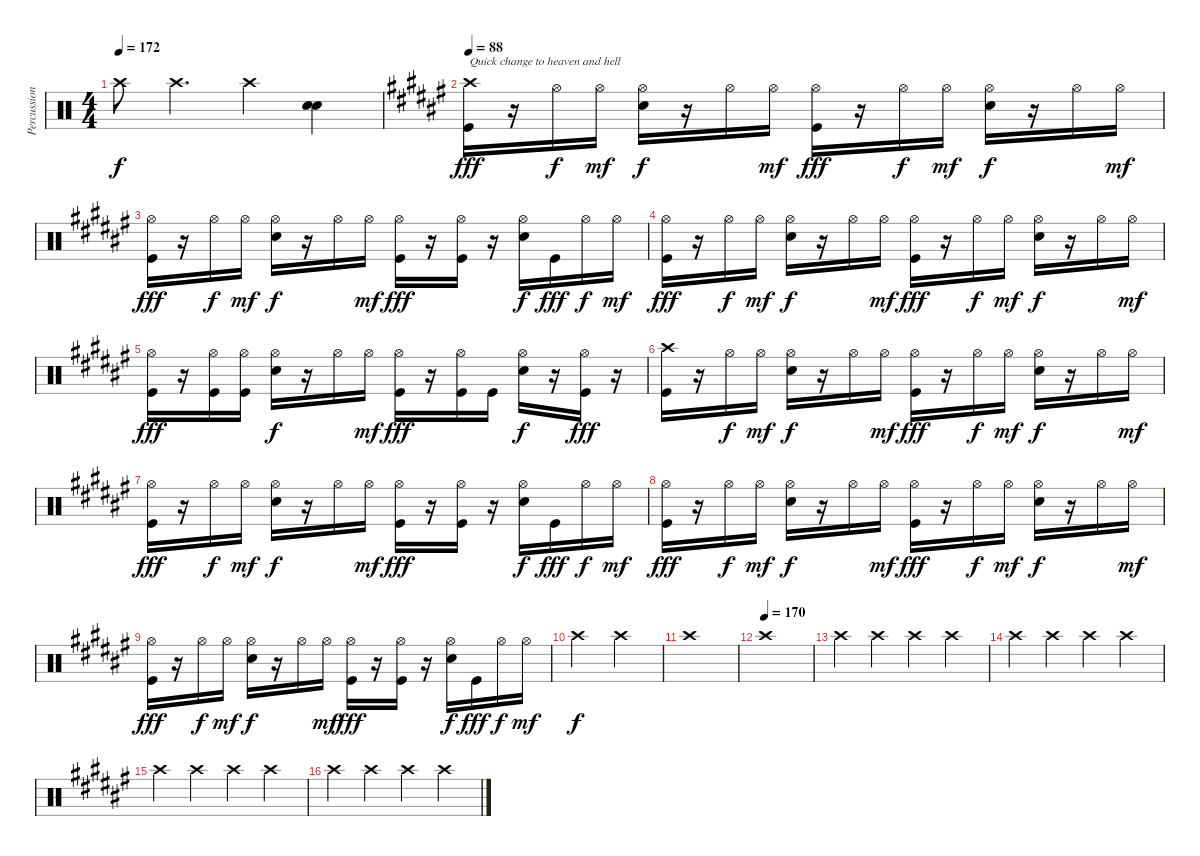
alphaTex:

\track ("Percussion" "Percussion") {instrument percussion}
\staff {score}
\articulation defaults
\ts (4 4)
\tempo 172
\clef neutral
\ks c "Crash high (hit)".8{dy f} "Crash high (hit)".4{d} "Crash high (hit)".4
("Snare (hit) 2" "Snare (hit) 2").4 |
\tempo 88
\ks f#
("Crash high (hit)" "Kick (hit)").16{txt "Quick change to heaven and hell" dy fff} r.16 "Hi-Hat (open)".16{dy f} "Hi-Hat (open)".16{dy mf} ("Hi-Hat (open)" "Snare (hit) 2").16{dy f} r.16 "Hi-Hat (open)".16 "Hi-Hat (open)".16{dy mf} ("Hi-Hat (open)" "Kick (hit)").16{dy fff} r.16 "Hi-Hat (open)".16{dy f} "Hi-Hat (open)".16{dy mf} ("Hi-Hat (open)" "Snare (hit) 2").16{dy f} r.16 "Hi-Hat (open)".16 "Hi-Hat (open)".16{dy mf} |
("Hi-Hat (open)" "Kick (hit)").16{dy fff} r.16 "Hi-Hat (open)".16{dy f} "Hi-Hat (open)".16{dy mf} ("Hi-Hat (open)" "Snare (hit) 2").16{dy f} r.16 "Hi-Hat (open)".16 "Hi-Hat (open)".16{dy mf} ("Hi-Hat (open)" "Kick (hit)").16{dy fff} r.16 ("Hi-Hat (open)" "Kick (hit)").16 r.16 ("Hi-Hat (open)" "Snare (hit) 2").16{dy f} "Kick (hit)".16{dy fff} "Hi-Hat (open)".16{dy f} "Hi-Hat (open)".16{dy mf} |
("Hi-Hat (open)" "Kick (hit)").16{dy fff} r.16 "Hi-Hat (open)".16{dy f} "Hi-Hat (open)".16{dy mf} ("Hi-Hat (open)" "Snare (hit) 2").16{dy f} r.16 "Hi-Hat (open)".16 "Hi-Hat (open)".16{dy mf} ("Hi-Hat (open)" "Kick (hit)").16{dy fff} r.16 "Hi-Hat (open)".16{dy f} "Hi-Hat (open)".16{dy mf} ("Hi-Hat (open)" "Snare (hit) 2").16{dy f} r.16 "Hi-Hat (open)".16 "Hi-Hat (open)".16{dy mf} |
("Hi-Hat (open)" "Kick (hit)").16{dy fff} r.16 ("Hi-Hat (open)" "Kick (hit)").16 ("Hi-Hat (open)" "Kick (hit)").16 ("Hi-Hat (open)" "Snare (hit) 2").16{dy f} r.16 "Hi-Hat (open)".16 "Hi-Hat (open)".16{dy mf} ("Hi-Hat (open)" "Kick (hit)").16{dy fff} r.16 ("Hi-Hat (open)" "Kick (hit)").16 "Kick (hit)".16 ("Hi-Hat (open)" "Snare (hit) 2").16{dy f} r.16 ("Hi-Hat (open)" "Kick (hit)").16{dy fff} r.16 |
("Crash high (hit)" "Kick (hit)").16 r.16 "Hi-Hat (open)".16{dy f} "Hi-Hat (open)".16{dy mf} ("Hi-Hat (open)" "Snare (hit) 2").16{dy f} r.16 "Hi-Hat (open)".16 "Hi-Hat (open)".16{dy mf} ("Hi-Hat (open)" "Kick (hit)").16{dy fff} r.16 "Hi-Hat (open)".16{dy f} "Hi-Hat (open)".16{dy mf} ("Hi-Hat (open)" "Snare (hit) 2").16{dy f} r.16 "Hi-Hat (open)".16 "Hi-Hat (open)".16{dy mf} |
("Hi-Hat (open)" "Kick (hit)").16{dy fff} r.16 "Hi-Hat (open)".16{dy f} "Hi-Hat (open)".16{dy mf} ("Hi-Hat (open)" "Snare (hit) 2").16{dy f} r.16 "Hi-Hat (open)".16 "Hi-Hat (open)".16{dy mf} ("Hi-Hat (open)" "Kick (hit)").16{dy fff} r.16 ("Hi-Hat (open)" "Kick (hit)").16 r.16 ("Hi-Hat (open)" "Snare (hit) 2").16{dy f} "Kick (hit)".16{dy fff} "Hi-Hat (open)".16{dy f} "Hi-Hat (open)".16{dy mf} |
("Hi-Hat (open)" "Kick (hit)").16{dy fff} r.16 "Hi-Hat (open)".16{dy f} "Hi-Hat (open)".16{dy mf} ("Hi-Hat (open)" "Snare (hit) 2").16{dy f} r.16 "Hi-Hat (open)".16 "Hi-Hat (open)".16{dy mf} ("Hi-Hat (open)" "Kick (hit)").16{dy fff} r.16 "Hi-Hat (open)".16{dy f} "Hi-Hat (open)".16{dy mf} ("Hi-Hat (open)" "Snare (hit) 2").16{dy f} r.16 "Hi-Hat (open)".16 "Hi-Hat (open)".16{dy mf} |
("Hi-Hat (open)" "Kick (hit)").16{dy fff} r.16 "Hi-Hat (open)".16{dy f} "Hi-Hat (open)".16{dy mf} ("Hi-Hat (open)" "Snare (hit) 2").16{dy f} r.16 "Hi-Hat (open)".16 "Hi-Hat (open)".16{dy mf} ("Hi-Hat (open)" "Kick (hit)").16{dy fff} r.16 ("Hi-Hat (open)" "Kick (hit)").16 r.16 ("Hi-Hat (open)" "Snare (hit) 2").16{dy f} "Kick (hit)".16{dy fff} "Hi-Hat (open)".16{dy f} "Hi-Hat (open)".16{dy mf} |
"Crash high (hit)".2{dy f} "Crash high (hit)".2 |
"Crash high (hit)".1 |
\tempo (170)
"Crash high (hit)".1 |
"Crash high (hit)".4 "Crash high (hit)".4 "Crash high (hit)".4 "Crash high (hit)".4 |
"Crash high (hit)".4 "Crash high (hit)".4 "Crash high (hit)".4 "Crash high (hit)".4 |
"Crash high (hit)".4 "Crash high (hit)".4 "Crash high (hit)".4 "Crash high (hit)".4 |
"Crash high (hit)".4 "Crash high (hit)".4 "Crash high (hit)".4 "Crash high (hit)".4
